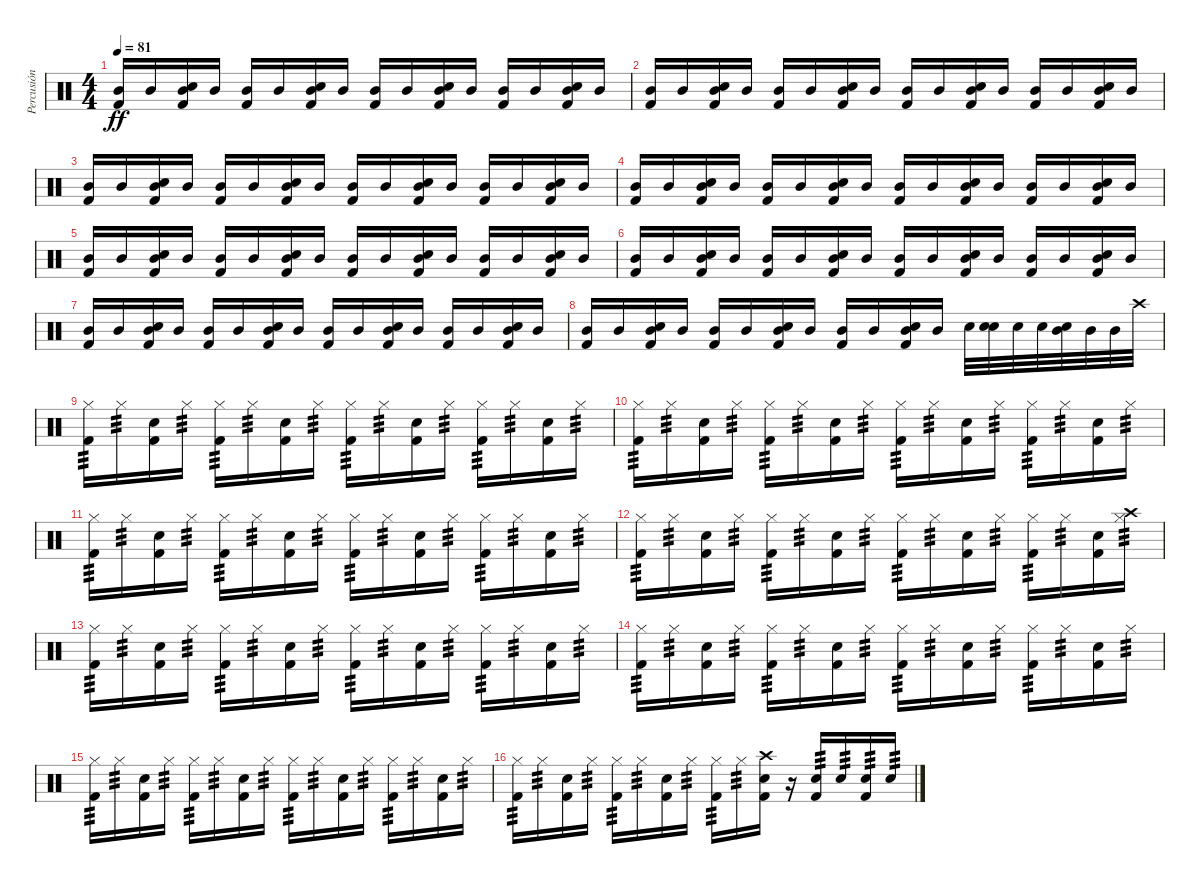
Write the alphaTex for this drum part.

\track ("Percusión" "Percusión") {instrument percussion}
\staff {score}
\articulation defaults
\ts (4 4)
\tempo 81
\clef neutral
\ks c
("Kick (hit) 2" "Mid Tom (hit)").16{dy ff} "Mid Tom (hit)".16 ("Kick (hit) 2" "Electric Snare (hit)" "Mid Tom (hit)").16 "Mid Tom (hit)".16 ("Kick (hit) 2" "Mid Tom (hit)").16 "Mid Tom (hit)".16 ("Kick (hit) 2" "Electric Snare (hit)" "Mid Tom (hit)").16 "Mid Tom (hit)".16 ("Kick (hit) 2" "Mid Tom (hit)").16 "Mid Tom (hit)".16 ("Kick (hit) 2" "Electric Snare (hit)" "Mid Tom (hit)").16 "Mid Tom (hit)".16 ("Kick (hit) 2" "Mid Tom (hit)").16 "Mid Tom (hit)".16 ("Kick (hit) 2" "Electric Snare (hit)" "Mid Tom (hit)").16 "Mid Tom (hit)".16 |
("Kick (hit) 2" "Mid Tom (hit)").16 "Mid Tom (hit)".16 ("Kick (hit) 2" "Electric Snare (hit)" "Mid Tom (hit)").16 "Mid Tom (hit)".16 ("Kick (hit) 2" "Mid Tom (hit)").16 "Mid Tom (hit)".16 ("Kick (hit) 2" "Electric Snare (hit)" "Mid Tom (hit)").16 "Mid Tom (hit)".16 ("Kick (hit) 2" "Mid Tom (hit)").16 "Mid Tom (hit)".16 ("Kick (hit) 2" "Electric Snare (hit)" "Mid Tom (hit)").16 "Mid Tom (hit)".16 ("Kick (hit) 2" "Mid Tom (hit)").16 "Mid Tom (hit)".16 ("Kick (hit) 2" "Electric Snare (hit)" "Mid Tom (hit)").16 "Mid Tom (hit)".16 |
("Kick (hit) 2" "Mid Tom (hit)").16 "Mid Tom (hit)".16 ("Kick (hit) 2" "Electric Snare (hit)" "Mid Tom (hit)").16 "Mid Tom (hit)".16 ("Kick (hit) 2" "Mid Tom (hit)").16 "Mid Tom (hit)".16 ("Kick (hit) 2" "Electric Snare (hit)" "Mid Tom (hit)").16 "Mid Tom (hit)".16 ("Kick (hit) 2" "Mid Tom (hit)").16 "Mid Tom (hit)".16 ("Kick (hit) 2" "Electric Snare (hit)" "Mid Tom (hit)").16 "Mid Tom (hit)".16 ("Kick (hit) 2" "Mid Tom (hit)").16 "Mid Tom (hit)".16 ("Kick (hit) 2" "Electric Snare (hit)" "Mid Tom (hit)").16 "Mid Tom (hit)".16 |
("Kick (hit) 2" "Mid Tom (hit)").16 "Mid Tom (hit)".16 ("Kick (hit) 2" "Electric Snare (hit)" "Mid Tom (hit)").16 "Mid Tom (hit)".16 ("Kick (hit) 2" "Mid Tom (hit)").16 "Mid Tom (hit)".16 ("Kick (hit) 2" "Electric Snare (hit)" "Mid Tom (hit)").16 "Mid Tom (hit)".16 ("Kick (hit) 2" "Mid Tom (hit)").16 "Mid Tom (hit)".16 ("Kick (hit) 2" "Electric Snare (hit)" "Mid Tom (hit)").16 "Mid Tom (hit)".16 ("Kick (hit) 2" "Mid Tom (hit)").16 "Mid Tom (hit)".16 ("Kick (hit) 2" "Electric Snare (hit)" "Mid Tom (hit)").16 "Mid Tom (hit)".16 |
("Kick (hit) 2" "Mid Tom (hit)").16 "Mid Tom (hit)".16 ("Kick (hit) 2" "Electric Snare (hit)" "Mid Tom (hit)").16 "Mid Tom (hit)".16 ("Kick (hit) 2" "Mid Tom (hit)").16 "Mid Tom (hit)".16 ("Kick (hit) 2" "Electric Snare (hit)" "Mid Tom (hit)").16 "Mid Tom (hit)".16 ("Kick (hit) 2" "Mid Tom (hit)").16 "Mid Tom (hit)".16 ("Kick (hit) 2" "Electric Snare (hit)" "Mid Tom (hit)").16 "Mid Tom (hit)".16 ("Kick (hit) 2" "Mid Tom (hit)").16 "Mid Tom (hit)".16 ("Kick (hit) 2" "Electric Snare (hit)" "Mid Tom (hit)").16 "Mid Tom (hit)".16 |
("Kick (hit) 2" "Mid Tom (hit)").16 "Mid Tom (hit)".16 ("Kick (hit) 2" "Electric Snare (hit)" "Mid Tom (hit)").16 "Mid Tom (hit)".16 ("Kick (hit) 2" "Mid Tom (hit)").16 "Mid Tom (hit)".16 ("Kick (hit) 2" "Electric Snare (hit)" "Mid Tom (hit)").16 "Mid Tom (hit)".16 ("Kick (hit) 2" "Mid Tom (hit)").16 "Mid Tom (hit)".16 ("Kick (hit) 2" "Electric Snare (hit)" "Mid Tom (hit)").16 "Mid Tom (hit)".16 ("Kick (hit) 2" "Mid Tom (hit)").16 "Mid Tom (hit)".16 ("Kick (hit) 2" "Electric Snare (hit)" "Mid Tom (hit)").16 "Mid Tom (hit)".16 |
("Kick (hit) 2" "Mid Tom (hit)").16 "Mid Tom (hit)".16 ("Kick (hit) 2" "Electric Snare (hit)" "Mid Tom (hit)").16 "Mid Tom (hit)".16 ("Kick (hit) 2" "Mid Tom (hit)").16 "Mid Tom (hit)".16 ("Kick (hit) 2" "Electric Snare (hit)" "Mid Tom (hit)").16 "Mid Tom (hit)".16 ("Kick (hit) 2" "Mid Tom (hit)").16 "Mid Tom (hit)".16 ("Kick (hit) 2" "Electric Snare (hit)" "Mid Tom (hit)").16 "Mid Tom (hit)".16 ("Kick (hit) 2" "Mid Tom (hit)").16 "Mid Tom (hit)".16 ("Kick (hit) 2" "Electric Snare (hit)" "Mid Tom (hit)").16 "Mid Tom (hit)".16 |
("Kick (hit) 2" "Mid Tom (hit)").16 "Mid Tom (hit)".16 ("Kick (hit) 2" "Electric Snare (hit)" "Mid Tom (hit)").16 "Mid Tom (hit)".16 ("Kick (hit) 2" "Mid Tom (hit)").16 "Mid Tom (hit)".16 ("Kick (hit) 2" "Electric Snare (hit)" "Mid Tom (hit)").16 "Mid Tom (hit)".16 ("Kick (hit) 2" "Mid Tom (hit)").16 "Mid Tom (hit)".16 ("Kick (hit) 2" "Electric Snare (hit)" "Mid Tom (hit)").16 "Mid Tom (hit)".16 "Electric Snare (hit)".32 ("Snare (hit) 2" "Electric Snare (hit)").32 "Electric Snare (hit)".32 "Electric Snare (hit)".32 ("Snare (hit) 2" "Mid Tom (hit)").32 "Mid Tom (hit)".32 "Mid Tom (hit)".32 "Crash high (hit)".32 |
("Kick (hit) 2" "Hi-Hat (closed)").16{tp 3} "Hi-Hat (closed)".16{tp 3} ("Kick (hit) 2" "Electric Snare (hit)").16 "Hi-Hat (closed)".16{tp 3} ("Kick (hit) 2" "Hi-Hat (closed)").16{tp 3} "Hi-Hat (closed)".16{tp 3} ("Kick (hit) 2" "Electric Snare (hit)").16 "Hi-Hat (closed)".16{tp 3} ("Kick (hit) 2" "Hi-Hat (closed)").16{tp 3} "Hi-Hat (closed)".16{tp 3} ("Kick (hit) 2" "Electric Snare (hit)").16 "Hi-Hat (closed)".16{tp 3} ("Kick (hit) 2" "Hi-Hat (closed)").16{tp 3} "Hi-Hat (closed)".16{tp 3} ("Kick (hit) 2" "Electric Snare (hit)").16 "Hi-Hat (closed)".16{tp 3} |
("Kick (hit) 2" "Hi-Hat (closed)").16{tp 3} "Hi-Hat (closed)".16{tp 3} ("Kick (hit) 2" "Electric Snare (hit)").16 "Hi-Hat (closed)".16{tp 3} ("Kick (hit) 2" "Hi-Hat (closed)").16{tp 3} "Hi-Hat (closed)".16{tp 3} ("Kick (hit) 2" "Electric Snare (hit)").16 "Hi-Hat (closed)".16{tp 3} ("Kick (hit) 2" "Hi-Hat (closed)").16{tp 3} "Hi-Hat (closed)".16{tp 3} ("Kick (hit) 2" "Electric Snare (hit)").16 "Hi-Hat (closed)".16{tp 3} ("Kick (hit) 2" "Hi-Hat (closed)").16{tp 3} "Hi-Hat (closed)".16{tp 3} ("Kick (hit) 2" "Electric Snare (hit)").16 "Hi-Hat (closed)".16{tp 3} |
("Kick (hit) 2" "Hi-Hat (closed)").16{tp 3} "Hi-Hat (closed)".16{tp 3} ("Kick (hit) 2" "Electric Snare (hit)").16 "Hi-Hat (closed)".16{tp 3} ("Kick (hit) 2" "Hi-Hat (closed)").16{tp 3} "Hi-Hat (closed)".16{tp 3} ("Kick (hit) 2" "Electric Snare (hit)").16 "Hi-Hat (closed)".16{tp 3} ("Kick (hit) 2" "Hi-Hat (closed)").16{tp 3} "Hi-Hat (closed)".16{tp 3} ("Kick (hit) 2" "Electric Snare (hit)").16 "Hi-Hat (closed)".16{tp 3} ("Kick (hit) 2" "Hi-Hat (closed)").16{tp 3} "Hi-Hat (closed)".16{tp 3} ("Kick (hit) 2" "Electric Snare (hit)").16 "Hi-Hat (closed)".16{tp 3} |
("Kick (hit) 2" "Hi-Hat (closed)").16{tp 3} "Hi-Hat (closed)".16{tp 3} ("Kick (hit) 2" "Electric Snare (hit)").16 "Hi-Hat (closed)".16{tp 3} ("Kick (hit) 2" "Hi-Hat (closed)").16{tp 3} "Hi-Hat (closed)".16{tp 3} ("Kick (hit) 2" "Electric Snare (hit)").16 "Hi-Hat (closed)".16{tp 3} ("Kick (hit) 2" "Hi-Hat (closed)").16{tp 3} "Hi-Hat (closed)".16{tp 3} ("Kick (hit) 2" "Electric Snare (hit)").16 "Hi-Hat (closed)".16{tp 3} ("Kick (hit) 2" "Hi-Hat (closed)").16{tp 3} "Hi-Hat (closed)".16{tp 3} ("Kick (hit) 2" "Electric Snare (hit)").16 ("Crash high (hit)" "Hi-Hat (closed)").16{tp 3} |
("Kick (hit) 2" "Hi-Hat (closed)").16{tp 3} "Hi-Hat (closed)".16{tp 3} ("Kick (hit) 2" "Electric Snare (hit)").16 "Hi-Hat (closed)".16{tp 3} ("Kick (hit) 2" "Hi-Hat (closed)").16{tp 3} "Hi-Hat (closed)".16{tp 3} ("Kick (hit) 2" "Electric Snare (hit)").16 "Hi-Hat (closed)".16{tp 3} ("Kick (hit) 2" "Hi-Hat (closed)").16{tp 3} "Hi-Hat (closed)".16{tp 3} ("Kick (hit) 2" "Electric Snare (hit)").16 "Hi-Hat (closed)".16{tp 3} ("Kick (hit) 2" "Hi-Hat (closed)").16{tp 3} "Hi-Hat (closed)".16{tp 3} ("Kick (hit) 2" "Electric Snare (hit)").16 "Hi-Hat (closed)".16{tp 3} |
("Kick (hit) 2" "Hi-Hat (closed)").16{tp 3} "Hi-Hat (closed)".16{tp 3} ("Kick (hit) 2" "Electric Snare (hit)").16 "Hi-Hat (closed)".16{tp 3} ("Kick (hit) 2" "Hi-Hat (closed)").16{tp 3} "Hi-Hat (closed)".16{tp 3} ("Kick (hit) 2" "Electric Snare (hit)").16 "Hi-Hat (closed)".16{tp 3} ("Kick (hit) 2" "Hi-Hat (closed)").16{tp 3} "Hi-Hat (closed)".16{tp 3} ("Kick (hit) 2" "Electric Snare (hit)").16 "Hi-Hat (closed)".16{tp 3} ("Kick (hit) 2" "Hi-Hat (closed)").16{tp 3} "Hi-Hat (closed)".16{tp 3} ("Kick (hit) 2" "Electric Snare (hit)").16 "Hi-Hat (closed)".16{tp 3} |
("Kick (hit) 2" "Hi-Hat (closed)").16{tp 3} "Hi-Hat (closed)".16{tp 3} ("Kick (hit) 2" "Electric Snare (hit)").16 "Hi-Hat (closed)".16{tp 3} ("Kick (hit) 2" "Hi-Hat (closed)").16{tp 3} "Hi-Hat (closed)".16{tp 3} ("Kick (hit) 2" "Electric Snare (hit)").16 "Hi-Hat (closed)".16{tp 3} ("Kick (hit) 2" "Hi-Hat (closed)").16{tp 3} "Hi-Hat (closed)".16{tp 3} ("Kick (hit) 2" "Electric Snare (hit)").16 "Hi-Hat (closed)".16{tp 3} ("Kick (hit) 2" "Hi-Hat (closed)").16{tp 3} "Hi-Hat (closed)".16{tp 3} ("Kick (hit) 2" "Electric Snare (hit)").16 "Hi-Hat (closed)".16{tp 3} |
("Kick (hit) 2" "Hi-Hat (closed)").16{tp 3} "Hi-Hat (closed)".16{tp 3} ("Kick (hit) 2" "Electric Snare (hit)").16 "Hi-Hat (closed)".16{tp 3} ("Kick (hit) 2" "Hi-Hat (closed)").16{tp 3} "Hi-Hat (closed)".16{tp 3} ("Kick (hit) 2" "Electric Snare (hit)").16 "Hi-Hat (closed)".16{tp 3} ("Kick (hit) 2" "Hi-Hat (closed)").16{tp 3} "Hi-Hat (closed)".16{tp 3} ("Kick (hit) 2" "Electric Snare (hit)" "Crash high (hit)").16 r.16 ("Kick (hit) 2" "Electric Snare (hit)").16{tp 3} "Electric Snare (hit)".16{tp 3} ("Kick (hit) 2" "Electric Snare (hit)").16{tp 3} "Electric Snare (hit)".16{tp 3}
